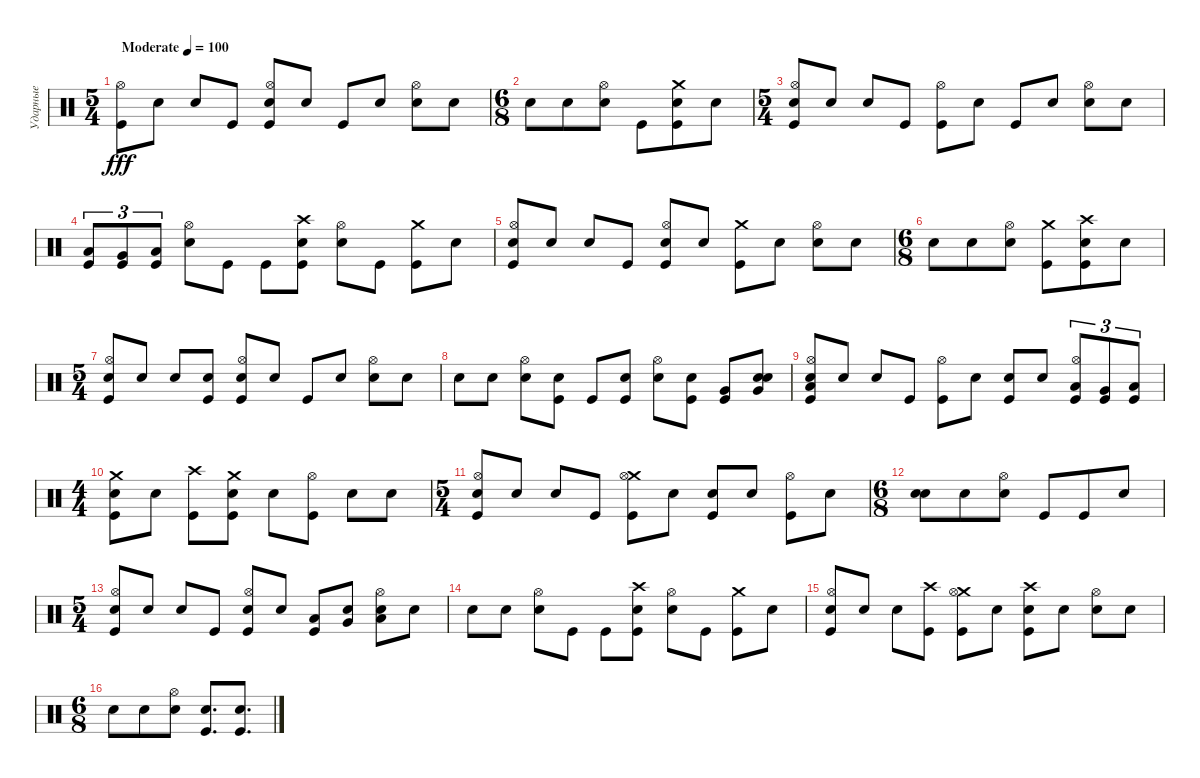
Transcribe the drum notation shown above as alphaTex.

\track ("Ударные" "Ударные") {instrument percussion}
\staff {score}
\articulation defaults
\ts (5 4)
\tempo (100 "Moderate")
\clef neutral
\ks c
("Kick (hit)" "Hi-Hat (open)").8{dy fff} "Snare (hit)".8 "Snare (hit)".8 "Kick (hit)".8 ("Kick (hit)" "Snare (hit) 2" "Hi-Hat (open)").8 "Snare (hit)".8 "Kick (hit)".8 "Snare (hit)".8 ("Snare (hit)" "Hi-Hat (open)").8 "Snare (hit)".8 |
\ts (6 8)
"Snare (hit)".8 "Snare (hit)".8 ("Snare (hit)" "Hi-Hat (open)").8 "Kick (hit)".8 ("Kick (hit)" "Snare (hit) 2" "Crash medium (hit)").8 "Snare (hit)".8 |
\ts (5 4)
("Kick (hit)" "Snare (hit) 2" "Hi-Hat (open)").8 "Snare (hit)".8 "Snare (hit)".8 "Kick (hit)".8 ("Kick (hit)" "Hi-Hat (open)").8 "Snare (hit)".8 "Kick (hit)".8 "Snare (hit)".8 ("Snare (hit)" "Hi-Hat (open)").8 "Snare (hit)".8 |
("Low Tom (hit)" "Kick (hit)").8{tu (3 2)} ("Very Low Tom (hit)" "Kick (hit)").8{tu (3 2)} ("Low Floor Tom (hit)" "Kick (hit)").8{tu (3 2)} ("Snare (hit)" "Hi-Hat (open)").8 "Kick (hit)".8 "Kick (hit)".8 ("Kick (hit)" "Snare (hit) 2" "Crash high (hit)").8 ("Snare (hit)" "Hi-Hat (open)").8 "Kick (hit)".8 ("Kick (hit)" "Crash medium (hit)").8 "Snare (hit)".8 |
("Kick (hit)" "Snare (hit) 2" "Hi-Hat (open)").8 "Snare (hit)".8 "Snare (hit)".8 "Kick (hit)".8 ("Kick (hit)" "Snare (hit) 2" "Hi-Hat (open)").8 "Snare (hit)".8 ("Kick (hit)" "Crash medium (hit)").8 "Snare (hit)".8 ("Snare (hit)" "Hi-Hat (open)").8 "Snare (hit)".8 |
\ts (6 8)
"Snare (hit)".8 "Snare (hit)".8 ("Snare (hit)" "Hi-Hat (open)").8 ("Kick (hit)" "Crash medium (hit)").8 ("Kick (hit)" "Snare (hit) 2" "Crash high (hit)").8 "Snare (hit)".8 |
\ts (5 4)
("Kick (hit)" "Snare (hit) 2" "Hi-Hat (open)").8 "Snare (hit)".8 "Snare (hit)".8 ("Kick (hit)" "Snare (hit) 2").8 ("Kick (hit)" "Snare (hit) 2" "Hi-Hat (open)").8 "Snare (hit)".8 "Kick (hit)".8 "Snare (hit)".8 ("Snare (hit)" "Hi-Hat (open)").8 "Snare (hit)".8 |
"Snare (hit)".8 "Snare (hit)".8 ("Snare (hit)" "Hi-Hat (open)").8 ("Kick (hit)" "Snare (hit) 2").8 "Kick (hit)".8 ("Kick (hit)" "Snare (hit) 2").8 ("Snare (hit)" "Hi-Hat (open)").8 ("Kick (hit)" "Snare (hit) 2").8 ("Kick (hit)" "Very Low Tom (hit)").8 ("Snare (hit)" "Snare (hit) 2" "Very Low Tom (hit)").8 |
("Kick (hit)" "Snare (hit) 2" "Low Floor Tom (hit)" "Hi-Hat (open)").8 "Snare (hit)".8 "Snare (hit)".8 "Kick (hit)".8 ("Kick (hit)" "Hi-Hat (open)").8 "Snare (hit)".8 ("Kick (hit)" "Snare (hit) 2").8 "Snare (hit)".8 ("Kick (hit)" "Low Tom (hit)" "Hi-Hat (open)").8{tu (3 2)} ("Kick (hit)" "Very Low Tom (hit)").8{tu (3 2)} ("Kick (hit)" "Low Floor Tom (hit)").8{tu (3 2)} |
\ts (4 4)
("Kick (hit)" "Crash medium (hit)" "Snare (hit) 2").8 "Snare (hit)".8 ("Kick (hit)" "Crash high (hit)").8 ("Kick (hit)" "Snare (hit) 2" "Crash medium (hit)").8 "Snare (hit)".8 ("Kick (hit)" "Hi-Hat (open)").8 "Snare (hit)".8 "Snare (hit)".8 |
\ts (5 4)
("Kick (hit)" "Snare (hit) 2" "Hi-Hat (open)").8 "Snare (hit)".8 "Snare (hit)".8 "Kick (hit)".8 ("Kick (hit)" "Crash medium (hit)" "Hi-Hat (open)").8 "Snare (hit)".8 ("Kick (hit)" "Snare (hit) 2").8 "Snare (hit)".8 ("Kick (hit)" "Hi-Hat (open)").8 "Snare (hit)".8 |
\ts (6 8)
("Snare (hit)" "Snare (hit) 2").8 "Snare (hit)".8 ("Snare (hit)" "Hi-Hat (open)").8 "Kick (hit)".8 "Kick (hit)".8 "Snare (hit)".8 |
\ts (5 4)
("Kick (hit)" "Snare (hit) 2" "Hi-Hat (open)").8 "Snare (hit)".8 "Snare (hit)".8 "Kick (hit)".8 ("Kick (hit)" "Snare (hit) 2" "Hi-Hat (open)").8 "Snare (hit)".8 ("Kick (hit)" "Low Tom (hit)").8 ("Snare (hit)" "Very Low Tom (hit)").8 ("Snare (hit)" "Low Floor Tom (hit)" "Hi-Hat (open)").8 "Snare (hit)".8 |
"Snare (hit)".8 "Snare (hit)".8 ("Snare (hit)" "Hi-Hat (open)").8 "Kick (hit)".8 "Kick (hit)".8 ("Kick (hit)" "Snare (hit) 2" "Crash high (hit)").8 ("Snare (hit)" "Hi-Hat (open)").8 "Kick (hit)".8 ("Kick (hit)" "Crash medium (hit)").8 "Snare (hit)".8 |
("Kick (hit)" "Snare (hit) 2" "Hi-Hat (open)").8 "Snare (hit)".8 "Snare (hit)".8 ("Kick (hit)" "Crash high (hit)").8 ("Kick (hit)" "Crash medium (hit)" "Hi-Hat (open)").8 "Snare (hit)".8 ("Kick (hit)" "Snare (hit) 2" "Crash high (hit)").8 "Snare (hit)".8 ("Snare (hit)" "Hi-Hat (open)").8 "Snare (hit)".8 |
\ts (6 8)
"Snare (hit)".8 "Snare (hit)".8 ("Snare (hit)" "Hi-Hat (open)").8 ("Kick (hit)" "Snare (hit) 2").8{d} ("Kick (hit)" "Snare (hit) 2").8{d}
